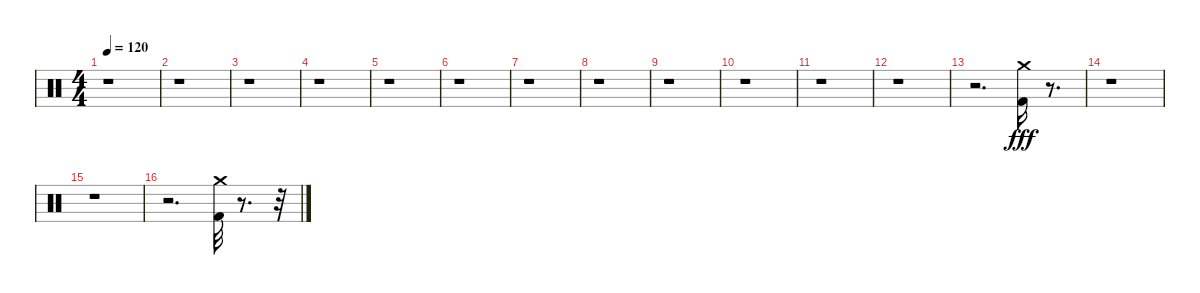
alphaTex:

\track "" {instrument percussion}
\staff {score}
\articulation defaults
\ts (4 4)
\tempo 120
\clef neutral
\ks c
r.1{dy fff} |
r.1 |
r.1 |
r.1 |
r.1 |
r.1 |
r.1 |
r.1 |
r.1 |
r.1 |
r.1 |
r.1 |
r.2{d} ("Kick (hit) 2" "Crash medium (hit)").16 r.8{d} |
r.1 |
r.1 |
r.2{d} ("Kick (hit) 2" "Crash medium (hit)").32 r.8{d} r.32
